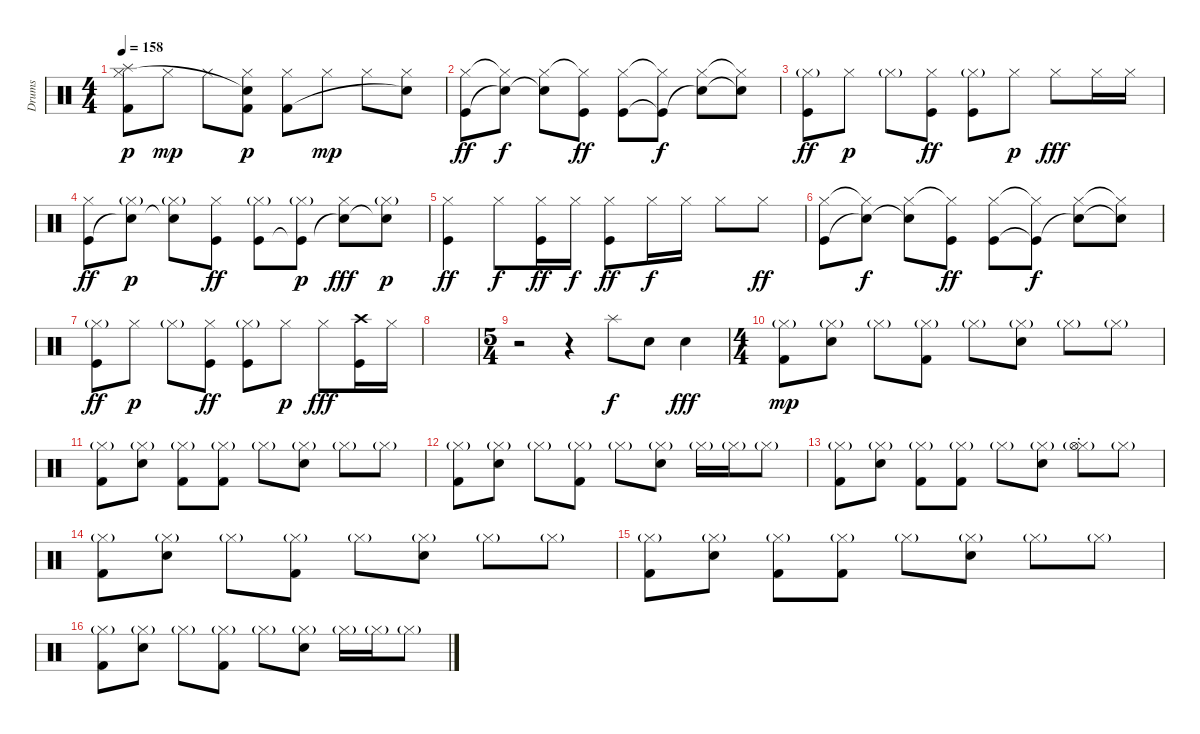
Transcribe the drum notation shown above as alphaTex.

\track ("Drums" "Drums") {instrument percussion}
\staff {score}
\articulation defaults
\ts (4 4)
\tempo 158
\clef neutral
\ks c
("Splash (hit)" "Hi-Hat (closed)" "Kick (hit) 2").8{dy p} "Hi-Hat (closed)".8{dy mp} "Hi-Hat (closed)".8 ("Hi-Hat (closed)" "Electric Snare (hit)"{t} "Kick (hit) 2").8{dy p} ("Hi-Hat (closed)" "Kick (hit) 2").8 "Hi-Hat (closed)".8{dy mp} "Hi-Hat (closed)".8 ("Hi-Hat (closed)" "Snare (hit)"{t}).8 |
("Hi-Hat (closed)" "Kick (hit)").8{dy ff} ("Hi-Hat (closed)"{t} "Snare (hit)"{t}).8{dy f} ("Hi-Hat (closed)" "Snare (hit)"{t}).8 ("Hi-Hat (closed)"{t} "Kick (hit)").8{dy ff} ("Hi-Hat (closed)" "Kick (hit)").8 ("Hi-Hat (closed)"{t} "Kick (hit)"{t}).8{dy f} ("Hi-Hat (closed)" "Snare (hit)"{t}).8 ("Hi-Hat (closed)"{t} "Snare (hit)"{t}).8 |
("Hi-Hat (closed)"{g} "Kick (hit)").8{dy ff} "Hi-Hat (closed)".8{dy p} "Hi-Hat (closed)"{g}.8 ("Hi-Hat (closed)" "Kick (hit)").8{dy ff} ("Hi-Hat (closed)"{g} "Kick (hit)").8 "Hi-Hat (closed)".8{dy p} "Hi-Hat (closed)".8{dy fff} "Hi-Hat (closed)".16 "Hi-Hat (closed)".16 |
("Hi-Hat (closed)" "Kick (hit)").8{dy ff} ("Hi-Hat (closed)"{g} "Snare (hit)"{t}).8{dy p} ("Hi-Hat (closed)"{g} "Snare (hit)"{t}).8 ("Hi-Hat (closed)" "Kick (hit)").8{dy ff} ("Hi-Hat (closed)"{g} "Kick (hit)").8 ("Hi-Hat (closed)"{g} "Kick (hit)"{t}).8{dy p} ("Hi-Hat (closed)" "Snare (hit)"{t}).8{dy fff} ("Hi-Hat (closed)"{g} "Snare (hit)"{t}).8{dy p} |
("Hi-Hat (closed)" "Kick (hit)").4{dy ff} "Hi-Hat (closed)".8{dy f} ("Hi-Hat (closed)" "Kick (hit)").16{dy ff} "Hi-Hat (closed)".16{dy f} ("Hi-Hat (closed)" "Kick (hit)").8{dy ff} "Hi-Hat (closed)".16{dy f} "Hi-Hat (closed)".16 "Hi-Hat (closed)".8 "Hi-Hat (closed)".8{dy ff} |
("Hi-Hat (closed)" "Kick (hit)").8 ("Hi-Hat (closed)"{t} "Snare (hit)"{t}).8{dy f} ("Hi-Hat (closed)" "Snare (hit)"{t}).8 ("Hi-Hat (closed)"{t} "Kick (hit)").8{dy ff} ("Hi-Hat (closed)" "Kick (hit)").8 ("Hi-Hat (closed)"{t} "Kick (hit)"{t}).8{dy f} ("Hi-Hat (closed)" "Snare (hit)"{t}).8 ("Hi-Hat (closed)"{t} "Snare (hit)"{t}).8 |
("Hi-Hat (closed)"{g} "Kick (hit)").8{dy ff} "Hi-Hat (closed)".8{dy p} "Hi-Hat (closed)"{g}.8 ("Hi-Hat (closed)" "Kick (hit)").8{dy ff} ("Hi-Hat (closed)"{g} "Kick (hit)").8 "Hi-Hat (closed)".8{dy p} "Hi-Hat (closed)".8{dy fff} ("Crash high (hit)" "Kick (hit)").16 "Hi-Hat (closed)".16 |
|
\ts (5 4)
r.2 r.4 "Splash (hit)".8{dy f} "Electric Snare (hit)".8 "Electric Snare (hit)".4{dy fff} |
\ts (4 4)
("Hi-Hat (closed)"{g} "Kick (hit) 2").8{dy mp} ("Hi-Hat (closed)"{g} "Electric Snare (hit)").8 "Hi-Hat (closed)"{g}.8 ("Hi-Hat (closed)"{g} "Kick (hit) 2").8 "Hi-Hat (closed)"{g}.8 ("Hi-Hat (closed)"{g} "Electric Snare (hit)").8 "Hi-Hat (closed)"{g}.8 "Hi-Hat (closed)"{g}.8 |
("Hi-Hat (closed)"{g} "Kick (hit) 2").8 ("Hi-Hat (closed)"{g} "Electric Snare (hit)").8 ("Hi-Hat (closed)"{g} "Kick (hit) 2").8 ("Hi-Hat (closed)"{g} "Kick (hit) 2").8 "Hi-Hat (closed)"{g}.8 ("Hi-Hat (closed)"{g} "Electric Snare (hit)").8 "Hi-Hat (closed)"{g}.8 "Hi-Hat (closed)"{g}.8 |
("Hi-Hat (closed)"{g} "Kick (hit) 2").8 ("Hi-Hat (closed)"{g} "Electric Snare (hit)").8 "Hi-Hat (closed)"{g}.8 ("Hi-Hat (closed)"{g} "Kick (hit) 2").8 "Hi-Hat (closed)"{g}.8 ("Hi-Hat (closed)"{g} "Electric Snare (hit)").8 "Hi-Hat (closed)"{g}.16 "Hi-Hat (closed)"{g}.16 "Hi-Hat (closed)"{g}.8 |
("Hi-Hat (closed)"{g} "Kick (hit) 2").8 ("Hi-Hat (closed)"{g} "Electric Snare (hit)").8 ("Hi-Hat (closed)"{g} "Kick (hit) 2").8 ("Hi-Hat (closed)"{g} "Kick (hit) 2").8 "Hi-Hat (closed)"{g}.8 ("Hi-Hat (closed)"{g} "Electric Snare (hit)").8 ("Hi-Hat (closed)"{g} "Hi-Hat (open)"{st}).8 "Hi-Hat (closed)"{g}.8 |
("Hi-Hat (closed)"{g} "Kick (hit) 2").8 ("Hi-Hat (closed)"{g} "Electric Snare (hit)").8 "Hi-Hat (closed)"{g}.8 ("Hi-Hat (closed)"{g} "Kick (hit) 2").8 "Hi-Hat (closed)"{g}.8 ("Hi-Hat (closed)"{g} "Electric Snare (hit)").8 "Hi-Hat (closed)"{g}.8 "Hi-Hat (closed)"{g}.8 |
("Hi-Hat (closed)"{g} "Kick (hit) 2").8 ("Hi-Hat (closed)"{g} "Electric Snare (hit)").8 ("Hi-Hat (closed)"{g} "Kick (hit) 2").8 ("Hi-Hat (closed)"{g} "Kick (hit) 2").8 "Hi-Hat (closed)"{g}.8 ("Hi-Hat (closed)"{g} "Electric Snare (hit)").8 "Hi-Hat (closed)"{g}.8 "Hi-Hat (closed)"{g}.8 |
("Hi-Hat (closed)"{g} "Kick (hit) 2").8 ("Hi-Hat (closed)"{g} "Electric Snare (hit)").8 "Hi-Hat (closed)"{g}.8 ("Hi-Hat (closed)"{g} "Kick (hit) 2").8 "Hi-Hat (closed)"{g}.8 ("Hi-Hat (closed)"{g} "Electric Snare (hit)").8 "Hi-Hat (closed)"{g}.16 "Hi-Hat (closed)"{g}.16 "Hi-Hat (closed)"{g}.8
